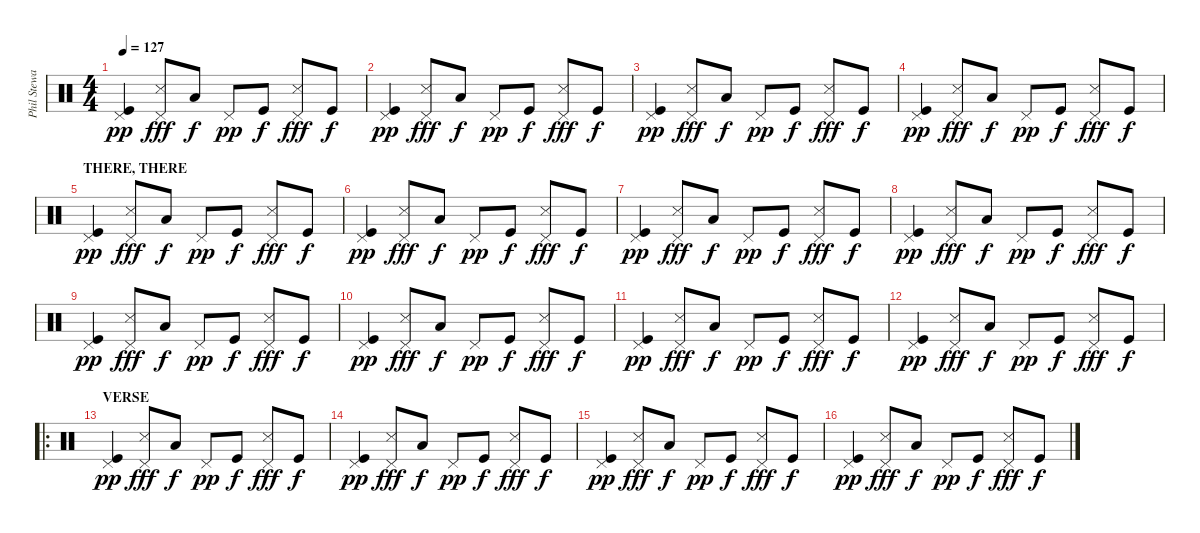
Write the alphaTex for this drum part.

\track ("Phil Steway" "Phil Stewa") {instrument percussion}
\staff {score}
\articulation defaults
\ts (4 4)
\tempo 127
\clef neutral
\ks c
("Pedal Hi-Hat (hit)" "Kick (hit)").4{dy pp} ("Pedal Hi-Hat (hit)" "Snare (side stick) 3").8{dy fff} "Low Tom (hit)".8{dy f} "Pedal Hi-Hat (hit)".8{dy pp} "Kick (hit)".8{dy f} ("Pedal Hi-Hat (hit)" "Snare (side stick) 3").8{dy fff} "Kick (hit)".8{dy f} |
("Pedal Hi-Hat (hit)" "Kick (hit)").4{dy pp} ("Pedal Hi-Hat (hit)" "Snare (side stick) 3").8{dy fff} "Low Tom (hit)".8{dy f} "Pedal Hi-Hat (hit)".8{dy pp} "Kick (hit)".8{dy f} ("Pedal Hi-Hat (hit)" "Snare (side stick) 3").8{dy fff} "Kick (hit)".8{dy f} |
("Pedal Hi-Hat (hit)" "Kick (hit)").4{dy pp} ("Pedal Hi-Hat (hit)" "Snare (side stick) 3").8{dy fff} "Low Tom (hit)".8{dy f} "Pedal Hi-Hat (hit)".8{dy pp} "Kick (hit)".8{dy f} ("Pedal Hi-Hat (hit)" "Snare (side stick) 3").8{dy fff} "Kick (hit)".8{dy f} |
("Pedal Hi-Hat (hit)" "Kick (hit)").4{dy pp} ("Pedal Hi-Hat (hit)" "Snare (side stick) 3").8{dy fff} "Low Tom (hit)".8{dy f} "Pedal Hi-Hat (hit)".8{dy pp} "Kick (hit)".8{dy f} ("Pedal Hi-Hat (hit)" "Snare (side stick) 3").8{dy fff} "Kick (hit)".8{dy f} |
\section ("" "THERE, THERE")
("Pedal Hi-Hat (hit)" "Kick (hit)").4{dy pp} ("Pedal Hi-Hat (hit)" "Snare (side stick) 3").8{dy fff} "Low Tom (hit)".8{dy f} "Pedal Hi-Hat (hit)".8{dy pp} "Kick (hit)".8{dy f} ("Pedal Hi-Hat (hit)" "Snare (side stick) 3").8{dy fff} "Kick (hit)".8{dy f} |
("Pedal Hi-Hat (hit)" "Kick (hit)").4{dy pp} ("Pedal Hi-Hat (hit)" "Snare (side stick) 3").8{dy fff} "Low Tom (hit)".8{dy f} "Pedal Hi-Hat (hit)".8{dy pp} "Kick (hit)".8{dy f} ("Pedal Hi-Hat (hit)" "Snare (side stick) 3").8{dy fff} "Kick (hit)".8{dy f} |
("Pedal Hi-Hat (hit)" "Kick (hit)").4{dy pp} ("Pedal Hi-Hat (hit)" "Snare (side stick) 3").8{dy fff} "Low Tom (hit)".8{dy f} "Pedal Hi-Hat (hit)".8{dy pp} "Kick (hit)".8{dy f} ("Pedal Hi-Hat (hit)" "Snare (side stick) 3").8{dy fff} "Kick (hit)".8{dy f} |
("Pedal Hi-Hat (hit)" "Kick (hit)").4{dy pp} ("Pedal Hi-Hat (hit)" "Snare (side stick) 3").8{dy fff} "Low Tom (hit)".8{dy f} "Pedal Hi-Hat (hit)".8{dy pp} "Kick (hit)".8{dy f} ("Pedal Hi-Hat (hit)" "Snare (side stick) 3").8{dy fff} "Kick (hit)".8{dy f} |
("Pedal Hi-Hat (hit)" "Kick (hit)").4{dy pp} ("Pedal Hi-Hat (hit)" "Snare (side stick) 3").8{dy fff} "Low Tom (hit)".8{dy f} "Pedal Hi-Hat (hit)".8{dy pp} "Kick (hit)".8{dy f} ("Pedal Hi-Hat (hit)" "Snare (side stick) 3").8{dy fff} "Kick (hit)".8{dy f} |
("Pedal Hi-Hat (hit)" "Kick (hit)").4{dy pp} ("Pedal Hi-Hat (hit)" "Snare (side stick) 3").8{dy fff} "Low Tom (hit)".8{dy f} "Pedal Hi-Hat (hit)".8{dy pp} "Kick (hit)".8{dy f} ("Pedal Hi-Hat (hit)" "Snare (side stick) 3").8{dy fff} "Kick (hit)".8{dy f} |
("Pedal Hi-Hat (hit)" "Kick (hit)").4{dy pp} ("Pedal Hi-Hat (hit)" "Snare (side stick) 3").8{dy fff} "Low Tom (hit)".8{dy f} "Pedal Hi-Hat (hit)".8{dy pp} "Kick (hit)".8{dy f} ("Pedal Hi-Hat (hit)" "Snare (side stick) 3").8{dy fff} "Kick (hit)".8{dy f} |
("Pedal Hi-Hat (hit)" "Kick (hit)").4{dy pp} ("Pedal Hi-Hat (hit)" "Snare (side stick) 3").8{dy fff} "Low Tom (hit)".8{dy f} "Pedal Hi-Hat (hit)".8{dy pp} "Kick (hit)".8{dy f} ("Pedal Hi-Hat (hit)" "Snare (side stick) 3").8{dy fff} "Kick (hit)".8{dy f} |
\ro
\section ("" "VERSE")
("Pedal Hi-Hat (hit)" "Kick (hit)").4{dy pp} ("Pedal Hi-Hat (hit)" "Snare (side stick) 3").8{dy fff} "Low Tom (hit)".8{dy f} "Pedal Hi-Hat (hit)".8{dy pp} "Kick (hit)".8{dy f} ("Pedal Hi-Hat (hit)" "Snare (side stick) 3").8{dy fff} "Kick (hit)".8{dy f} |
("Pedal Hi-Hat (hit)" "Kick (hit)").4{dy pp} ("Pedal Hi-Hat (hit)" "Snare (side stick) 3").8{dy fff} "Low Tom (hit)".8{dy f} "Pedal Hi-Hat (hit)".8{dy pp} "Kick (hit)".8{dy f} ("Pedal Hi-Hat (hit)" "Snare (side stick) 3").8{dy fff} "Kick (hit)".8{dy f} |
("Pedal Hi-Hat (hit)" "Kick (hit)").4{dy pp} ("Pedal Hi-Hat (hit)" "Snare (side stick) 3").8{dy fff} "Low Tom (hit)".8{dy f} "Pedal Hi-Hat (hit)".8{dy pp} "Kick (hit)".8{dy f} ("Pedal Hi-Hat (hit)" "Snare (side stick) 3").8{dy fff} "Kick (hit)".8{dy f} |
("Pedal Hi-Hat (hit)" "Kick (hit)").4{dy pp} ("Pedal Hi-Hat (hit)" "Snare (side stick) 3").8{dy fff} "Low Tom (hit)".8{dy f} "Pedal Hi-Hat (hit)".8{dy pp} "Kick (hit)".8{dy f} ("Pedal Hi-Hat (hit)" "Snare (side stick) 3").8{dy fff} "Kick (hit)".8{dy f}
